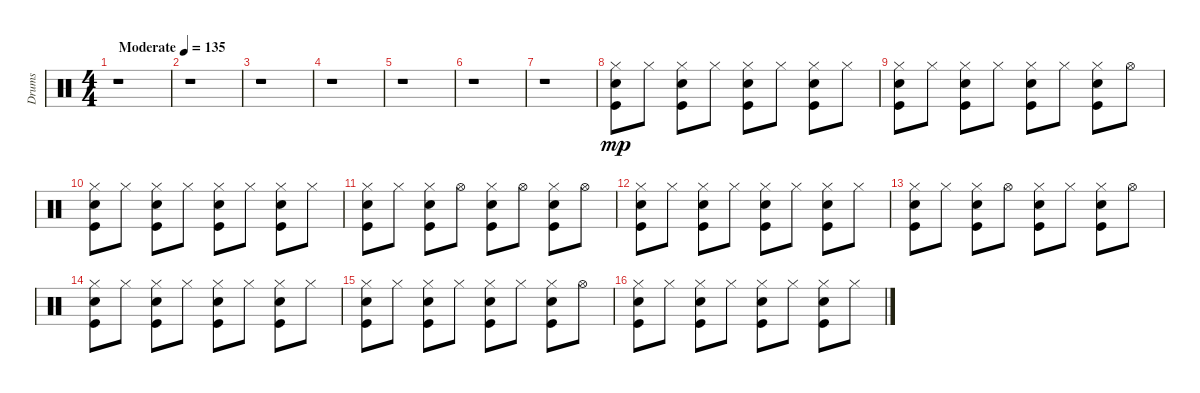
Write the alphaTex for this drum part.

\track ("Drums   " "Drums   ") {instrument percussion}
\staff {score}
\articulation defaults
\ts (4 4)
\tempo (135 "Moderate")
\clef neutral
\ks c
r.1{dy mp} |
r.1 |
r.1 |
r.1 |
r.1 |
r.1 |
r.1 |
("Snare (hit) 2" "Hi-Hat (closed)" "Kick (hit)").8 "Hi-Hat (closed)".8 ("Snare (hit) 2" "Hi-Hat (closed)" "Kick (hit)").8 "Hi-Hat (closed)".8 ("Snare (hit) 2" "Hi-Hat (closed)" "Kick (hit)").8 "Hi-Hat (closed)".8 ("Snare (hit) 2" "Hi-Hat (closed)" "Kick (hit)").8 "Hi-Hat (closed)".8 |
("Snare (hit) 2" "Hi-Hat (closed)" "Kick (hit)").8 "Hi-Hat (closed)".8 ("Snare (hit) 2" "Hi-Hat (closed)" "Kick (hit)").8 "Hi-Hat (closed)".8 ("Snare (hit) 2" "Hi-Hat (closed)" "Kick (hit)").8 "Hi-Hat (closed)".8 ("Snare (hit) 2" "Hi-Hat (closed)" "Kick (hit)").8 "Hi-Hat (open)".8 |
("Snare (hit) 2" "Hi-Hat (closed)" "Kick (hit)").8 "Hi-Hat (closed)".8 ("Snare (hit) 2" "Hi-Hat (closed)" "Kick (hit)").8 "Hi-Hat (closed)".8 ("Snare (hit) 2" "Hi-Hat (closed)" "Kick (hit)").8 "Hi-Hat (closed)".8 ("Snare (hit) 2" "Hi-Hat (closed)" "Kick (hit)").8 "Hi-Hat (closed)".8 |
("Snare (hit) 2" "Hi-Hat (closed)" "Kick (hit)").8 "Hi-Hat (closed)".8 ("Snare (hit) 2" "Hi-Hat (closed)" "Kick (hit)").8 "Hi-Hat (open)".8 ("Snare (hit) 2" "Hi-Hat (closed)" "Kick (hit)").8 "Hi-Hat (open)".8 ("Snare (hit) 2" "Hi-Hat (closed)" "Kick (hit)").8 "Hi-Hat (open)".8 |
("Snare (hit) 2" "Hi-Hat (closed)" "Kick (hit)").8 "Hi-Hat (closed)".8 ("Snare (hit) 2" "Hi-Hat (closed)" "Kick (hit)").8 "Hi-Hat (closed)".8 ("Snare (hit) 2" "Hi-Hat (closed)" "Kick (hit)").8 "Hi-Hat (closed)".8 ("Snare (hit) 2" "Hi-Hat (closed)" "Kick (hit)").8 "Hi-Hat (closed)".8 |
("Snare (hit) 2" "Hi-Hat (closed)" "Kick (hit)").8 "Hi-Hat (closed)".8 ("Snare (hit) 2" "Hi-Hat (closed)" "Kick (hit)").8 "Hi-Hat (open)".8 ("Snare (hit) 2" "Hi-Hat (closed)" "Kick (hit)").8 "Hi-Hat (closed)".8 ("Snare (hit) 2" "Hi-Hat (closed)" "Kick (hit)").8 "Hi-Hat (open)".8 |
("Snare (hit) 2" "Hi-Hat (closed)" "Kick (hit)").8 "Hi-Hat (closed)".8 ("Snare (hit) 2" "Hi-Hat (closed)" "Kick (hit)").8 "Hi-Hat (closed)".8 ("Snare (hit) 2" "Hi-Hat (closed)" "Kick (hit)").8 "Hi-Hat (closed)".8 ("Snare (hit) 2" "Hi-Hat (closed)" "Kick (hit)").8 "Hi-Hat (closed)".8 |
("Snare (hit) 2" "Hi-Hat (closed)" "Kick (hit)").8 "Hi-Hat (closed)".8 ("Snare (hit) 2" "Hi-Hat (closed)" "Kick (hit)").8 "Hi-Hat (closed)".8 ("Snare (hit) 2" "Hi-Hat (closed)" "Kick (hit)").8 "Hi-Hat (closed)".8 ("Snare (hit) 2" "Hi-Hat (closed)" "Kick (hit)").8 "Hi-Hat (open)".8 |
("Snare (hit) 2" "Hi-Hat (closed)" "Kick (hit)").8 "Hi-Hat (closed)".8 ("Snare (hit) 2" "Hi-Hat (closed)" "Kick (hit)").8 "Hi-Hat (closed)".8 ("Snare (hit) 2" "Hi-Hat (closed)" "Kick (hit)").8 "Hi-Hat (closed)".8 ("Snare (hit) 2" "Hi-Hat (closed)" "Kick (hit)").8 "Hi-Hat (closed)".8
